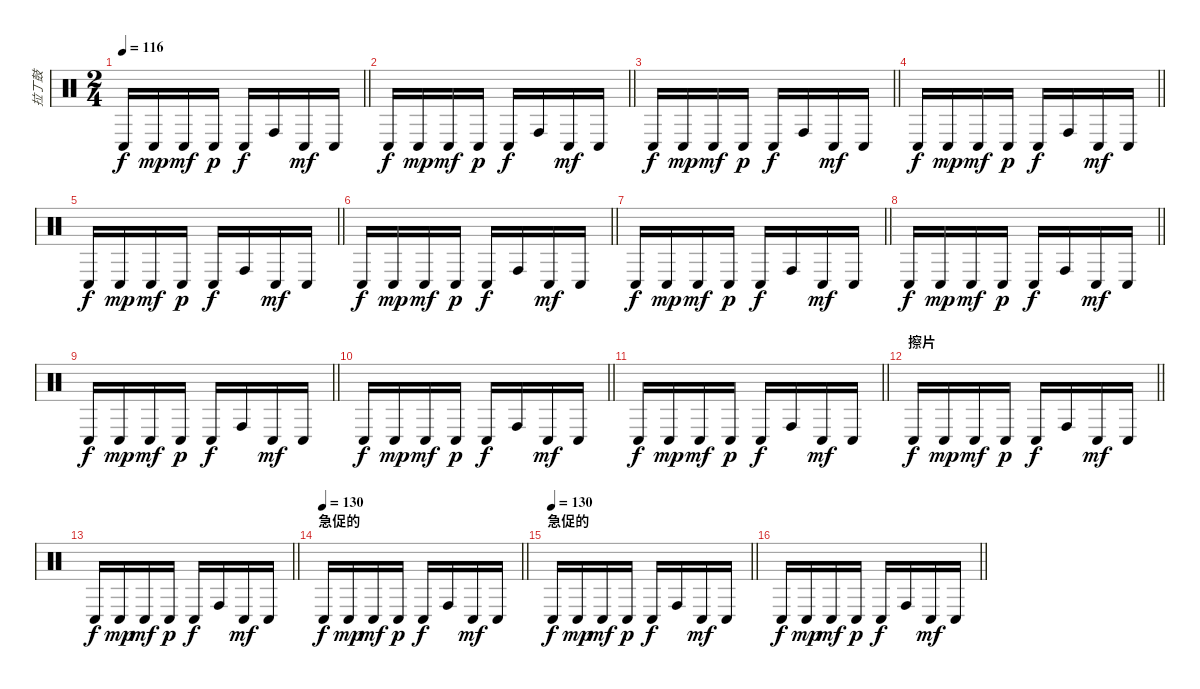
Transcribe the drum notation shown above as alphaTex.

\track ("拉丁鼓" "拉丁鼓") {instrument percussion}
\staff {score}
\articulation defaults
\ts (2 4)
\tempo 116
\clef neutral
\barLineRight lightlight
\ks c "Conga low (hit)".16{dy f} "Conga low (hit)".16{dy mp} "Conga low (hit)".16{dy mf} "Conga low (hit)".16{dy p} "Conga low (hit)".16{dy f} "Conga high (hit)".16 "Conga low (hit)".16{dy mf} "Conga low (hit)".16
|
\barLineRight lightlight "Conga low (hit)".16{dy f} "Conga low (hit)".16{dy mp} "Conga low (hit)".16{dy mf} "Conga low (hit)".16{dy p} "Conga low (hit)".16{dy f} "Conga high (hit)".16 "Conga low (hit)".16{dy mf} "Conga low (hit)".16
|
\barLineRight lightlight "Conga low (hit)".16{dy f} "Conga low (hit)".16{dy mp} "Conga low (hit)".16{dy mf} "Conga low (hit)".16{dy p} "Conga low (hit)".16{dy f} "Conga high (hit)".16 "Conga low (hit)".16{dy mf} "Conga low (hit)".16
|
\barLineRight lightlight "Conga low (hit)".16{dy f} "Conga low (hit)".16{dy mp} "Conga low (hit)".16{dy mf} "Conga low (hit)".16{dy p} "Conga low (hit)".16{dy f} "Conga high (hit)".16 "Conga low (hit)".16{dy mf} "Conga low (hit)".16
|
\barLineRight lightlight "Conga low (hit)".16{dy f} "Conga low (hit)".16{dy mp} "Conga low (hit)".16{dy mf} "Conga low (hit)".16{dy p} "Conga low (hit)".16{dy f} "Conga high (hit)".16 "Conga low (hit)".16{dy mf} "Conga low (hit)".16
|
\barLineRight lightlight "Conga low (hit)".16{dy f} "Conga low (hit)".16{dy mp} "Conga low (hit)".16{dy mf} "Conga low (hit)".16{dy p} "Conga low (hit)".16{dy f} "Conga high (hit)".16 "Conga low (hit)".16{dy mf} "Conga low (hit)".16
|
\barLineRight lightlight "Conga low (hit)".16{dy f} "Conga low (hit)".16{dy mp} "Conga low (hit)".16{dy mf} "Conga low (hit)".16{dy p} "Conga low (hit)".16{dy f} "Conga high (hit)".16 "Conga low (hit)".16{dy mf} "Conga low (hit)".16
|
\barLineRight lightlight "Conga low (hit)".16{dy f} "Conga low (hit)".16{dy mp} "Conga low (hit)".16{dy mf} "Conga low (hit)".16{dy p} "Conga low (hit)".16{dy f} "Conga high (hit)".16 "Conga low (hit)".16{dy mf} "Conga low (hit)".16
|
\barLineRight lightlight "Conga low (hit)".16{dy f} "Conga low (hit)".16{dy mp} "Conga low (hit)".16{dy mf} "Conga low (hit)".16{dy p} "Conga low (hit)".16{dy f} "Conga high (hit)".16 "Conga low (hit)".16{dy mf} "Conga low (hit)".16
|
\barLineRight lightlight "Conga low (hit)".16{dy f} "Conga low (hit)".16{dy mp} "Conga low (hit)".16{dy mf} "Conga low (hit)".16{dy p} "Conga low (hit)".16{dy f} "Conga high (hit)".16 "Conga low (hit)".16{dy mf} "Conga low (hit)".16
|
\barLineRight lightlight "Conga low (hit)".16{dy f} "Conga low (hit)".16{dy mp} "Conga low (hit)".16{dy mf} "Conga low (hit)".16{dy p} "Conga low (hit)".16{dy f} "Conga high (hit)".16 "Conga low (hit)".16{dy mf} "Conga low (hit)".16
|
\section ("" "擦片")
\barLineRight lightlight "Conga low (hit)".16{dy f} "Conga low (hit)".16{dy mp} "Conga low (hit)".16{dy mf} "Conga low (hit)".16{dy p} "Conga low (hit)".16{dy f} "Conga high (hit)".16 "Conga low (hit)".16{dy mf} "Conga low (hit)".16
|
\barLineRight lightlight "Conga low (hit)".16{dy f} "Conga low (hit)".16{dy mp} "Conga low (hit)".16{dy mf} "Conga low (hit)".16{dy p} "Conga low (hit)".16{dy f} "Conga high (hit)".16 "Conga low (hit)".16{dy mf} "Conga low (hit)".16
|
\section ("" "急促的")
\tempo 130
\barLineRight lightlight "Conga low (hit)".16{dy f} "Conga low (hit)".16{dy mp} "Conga low (hit)".16{dy mf} "Conga low (hit)".16{dy p} "Conga low (hit)".16{dy f} "Conga high (hit)".16 "Conga low (hit)".16{dy mf} "Conga low (hit)".16
|
\section ("" "急促的")
\tempo 130
\barLineRight lightlight "Conga low (hit)".16{dy f} "Conga low (hit)".16{dy mp} "Conga low (hit)".16{dy mf} "Conga low (hit)".16{dy p} "Conga low (hit)".16{dy f} "Conga high (hit)".16 "Conga low (hit)".16{dy mf} "Conga low (hit)".16
|
\barLineRight lightlight "Conga low (hit)".16{dy f} "Conga low (hit)".16{dy mp} "Conga low (hit)".16{dy mf} "Conga low (hit)".16{dy p} "Conga low (hit)".16{dy f} "Conga high (hit)".16 "Conga low (hit)".16{dy mf} "Conga low (hit)".16
